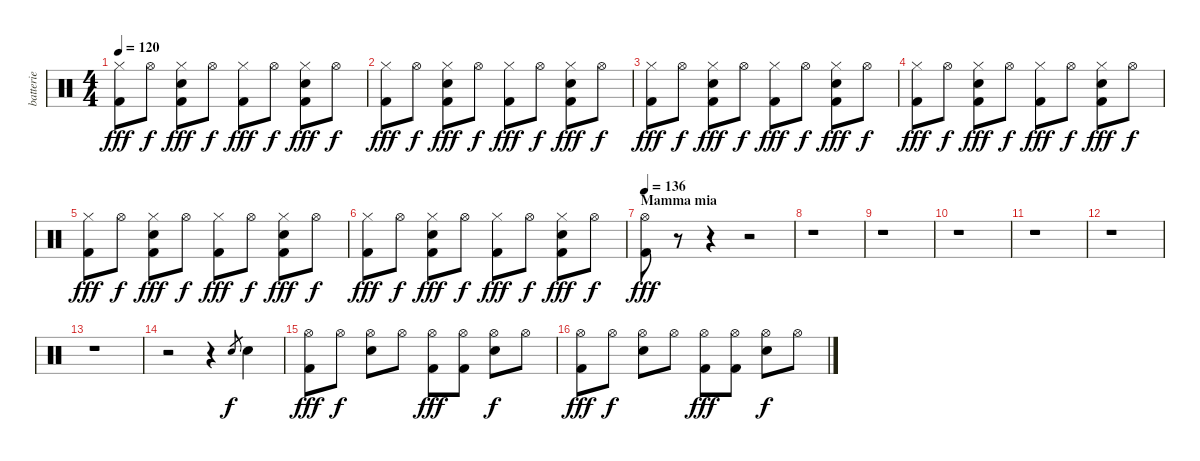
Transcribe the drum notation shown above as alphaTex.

\track ("batterie" "batterie") {instrument percussion}
\staff {score}
\articulation defaults
\ts (4 4)
\tempo 120
\clef neutral
\ks c
("Hi-Hat (closed)" "Kick (hit) 2").8{dy fff} "Hi-Hat (open)".8{dy f} ("Hi-Hat (closed)" "Electric Snare (hit)" "Kick (hit) 2").8{dy fff} "Hi-Hat (open)".8{dy f} ("Hi-Hat (closed)" "Kick (hit) 2").8{dy fff} "Hi-Hat (open)".8{dy f} ("Hi-Hat (closed)" "Electric Snare (hit)" "Kick (hit) 2").8{dy fff} "Hi-Hat (open)".8{dy f} |
("Hi-Hat (closed)" "Kick (hit) 2").8{dy fff} "Hi-Hat (open)".8{dy f} ("Hi-Hat (closed)" "Electric Snare (hit)" "Kick (hit) 2").8{dy fff} "Hi-Hat (open)".8{dy f} ("Hi-Hat (closed)" "Kick (hit) 2").8{dy fff} "Hi-Hat (open)".8{dy f} ("Hi-Hat (closed)" "Electric Snare (hit)" "Kick (hit) 2").8{dy fff} "Hi-Hat (open)".8{dy f} |
("Hi-Hat (closed)" "Kick (hit) 2").8{dy fff} "Hi-Hat (open)".8{dy f} ("Hi-Hat (closed)" "Electric Snare (hit)" "Kick (hit) 2").8{dy fff} "Hi-Hat (open)".8{dy f} ("Hi-Hat (closed)" "Kick (hit) 2").8{dy fff} "Hi-Hat (open)".8{dy f} ("Hi-Hat (closed)" "Electric Snare (hit)" "Kick (hit) 2").8{dy fff} "Hi-Hat (open)".8{dy f} |
("Hi-Hat (closed)" "Kick (hit) 2").8{dy fff} "Hi-Hat (open)".8{dy f} ("Hi-Hat (closed)" "Electric Snare (hit)" "Kick (hit) 2").8{dy fff} "Hi-Hat (open)".8{dy f} ("Hi-Hat (closed)" "Kick (hit) 2").8{dy fff} "Hi-Hat (open)".8{dy f} ("Hi-Hat (closed)" "Electric Snare (hit)" "Kick (hit) 2").8{dy fff} "Hi-Hat (open)".8{dy f} |
("Hi-Hat (closed)" "Kick (hit) 2").8{dy fff} "Hi-Hat (open)".8{dy f} ("Hi-Hat (closed)" "Electric Snare (hit)" "Kick (hit) 2").8{dy fff} "Hi-Hat (open)".8{dy f} ("Hi-Hat (closed)" "Kick (hit) 2").8{dy fff} "Hi-Hat (open)".8{dy f} ("Hi-Hat (closed)" "Electric Snare (hit)" "Kick (hit) 2").8{dy fff} "Hi-Hat (open)".8{dy f} |
("Hi-Hat (closed)" "Kick (hit) 2").8{dy fff} "Hi-Hat (open)".8{dy f} ("Hi-Hat (closed)" "Electric Snare (hit)" "Kick (hit) 2").8{dy fff} "Hi-Hat (open)".8{dy f} ("Hi-Hat (closed)" "Kick (hit) 2").8{dy fff} "Hi-Hat (open)".8{dy f} ("Hi-Hat (closed)" "Electric Snare (hit)" "Kick (hit) 2").8{dy fff} "Hi-Hat (open)".8{dy f} |
\section ("" "Mamma mia")
\tempo 136
("Hi-Hat (open)" "Kick (hit) 2").8{dy fff} r.8 r.4 r.2 |
r.1 |
r.1 |
r.1 |
r.1 |
r.1 |
r.1 |
r.2 r.4 "Electric Snare (hit)".8{gr dy f} "Electric Snare (hit)".4 |
("Hi-Hat (open)" "Kick (hit) 2").8{dy fff} "Hi-Hat (open)".8{dy f} ("Hi-Hat (open)" "Electric Snare (hit)").8 "Hi-Hat (open)".8 ("Hi-Hat (open)" "Kick (hit) 2").8{dy fff} ("Hi-Hat (open)" "Kick (hit) 2").8 ("Hi-Hat (open)" "Electric Snare (hit)").8{dy f} "Hi-Hat (open)".8 |
("Hi-Hat (open)" "Kick (hit) 2").8{dy fff} "Hi-Hat (open)".8{dy f} ("Hi-Hat (open)" "Electric Snare (hit)").8 "Hi-Hat (open)".8 ("Hi-Hat (open)" "Kick (hit) 2").8{dy fff} ("Hi-Hat (open)" "Kick (hit) 2").8 ("Hi-Hat (open)" "Electric Snare (hit)").8{dy f} "Hi-Hat (open)".8
